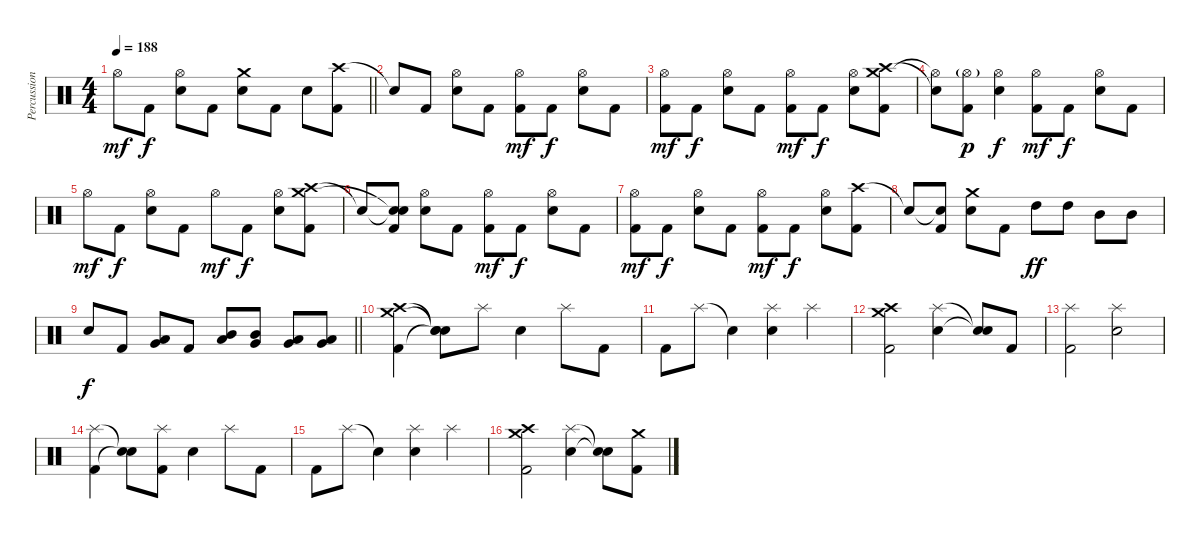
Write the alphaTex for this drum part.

\track ("Percussion" "Percussion") {instrument percussion}
\staff {score}
\articulation defaults
\ts (4 4)
\tempo 188
\clef neutral
\barLineRight lightlight
\ks c "Hi-Hat (open)".8{dy mf} "Kick (hit) 2".8{dy f}
("Hi-Hat (open)" "Electric Snare (hit)").8 "Kick (hit) 2".8 ("Crash medium (hit)" "Electric Snare (hit)").8 "Kick (hit) 2".8 "Electric Snare (hit)".8 ("Crash high (hit)" "Kick (hit) 2").8 |
"Snare (hit)"{t}.8 "Kick (hit) 2".8 ("Hi-Hat (open)" "Electric Snare (hit)").8 "Kick (hit) 2".8 ("Hi-Hat (open)" "Kick (hit) 2").8{dy mf} "Kick (hit) 2".8{dy f} ("Hi-Hat (open)" "Electric Snare (hit)").8 "Kick (hit) 2".8 |
("Hi-Hat (open)" "Kick (hit) 2").8{dy mf} "Kick (hit) 2".8{dy f} ("Hi-Hat (open)" "Electric Snare (hit)").8 "Kick (hit) 2".8 ("Hi-Hat (open)" "Kick (hit) 2").8{dy mf} "Kick (hit) 2".8{dy f} ("Hi-Hat (open)" "Electric Snare (hit)").8 ("Crash high (hit)" "Crash medium (hit)" "Kick (hit) 2").8 |
("Snare (hit)"{t} "Hi-Hat (open)"{t}).8 ("Hi-Hat (open)"{g} "Kick (hit) 2").8{dy p} ("Hi-Hat (open)" "Electric Snare (hit)").4{dy f} ("Hi-Hat (open)" "Kick (hit) 2").8{dy mf} "Kick (hit) 2".8{dy f} ("Hi-Hat (open)" "Electric Snare (hit)").8 "Kick (hit) 2".8 |
"Hi-Hat (open)".8{dy mf} "Kick (hit) 2".8{dy f} ("Hi-Hat (open)" "Electric Snare (hit)").8 "Kick (hit) 2".8 "Hi-Hat (open)".8{dy mf} "Kick (hit) 2".8{dy f} ("Hi-Hat (open)" "Electric Snare (hit)").8 ("Crash high (hit)" "Crash medium (hit)" "Kick (hit) 2").8 |
"Snare (hit)"{t}.8 ("Snare (hit)"{t} "Snare (hit)"{t} "Kick (hit) 2").8 ("Hi-Hat (open)" "Electric Snare (hit)").8 "Kick (hit) 2".8 ("Hi-Hat (open)" "Kick (hit) 2").8{dy mf} "Kick (hit) 2".8{dy f} ("Hi-Hat (open)" "Electric Snare (hit)").8 "Kick (hit) 2".8 |
("Hi-Hat (open)" "Kick (hit) 2").8{dy mf} "Kick (hit) 2".8{dy f} ("Hi-Hat (open)" "Electric Snare (hit)").8 "Kick (hit) 2".8 ("Hi-Hat (open)" "Kick (hit) 2").8{dy mf} "Kick (hit) 2".8{dy f} ("Hi-Hat (open)" "Electric Snare (hit)").8 ("Crash high (hit)" "Kick (hit) 2").8 |
"Snare (hit)"{t}.8 ("Snare (hit)"{t} "Kick (hit) 2").8 ("Crash medium (hit)" "Electric Snare (hit)").8 "Kick (hit) 2".8 "High Tom (hit)".8{dy ff} "High Tom (hit)".8 "Mid Tom (hit)".8 "Mid Tom (hit)".8 |
\barLineRight lightlight "Electric Snare (hit)".8{dy f} "Kick (hit) 2".8
("Low Tom (hit)" "Very Low Tom (hit)").8 "Kick (hit) 2".8 ("Mid Tom (hit)" "Low Tom (hit)").8 ("Mid Tom (hit)" "Very Low Tom (hit)").8 ("Low Tom (hit)" "Very Low Tom (hit)").8 ("Very Low Tom (hit)" "Low Floor Tom (hit)").8 |
("Crash high (hit)" "Crash medium (hit)" "Kick (hit) 2").4 ("Snare (hit)"{t} "Snare (hit)"{t} "Snare (hit)"{t}).8 "Splash (hit)".8 "Electric Snare (hit)".4 "Splash (hit)".8 "Kick (hit) 2".8 |
"Kick (hit) 2".8 "Splash (hit)".8 "Snare (hit)"{t}.4 ("Splash (hit)" "Electric Snare (hit)").4 "Splash (hit)".4 |
("Crash high (hit)" "Crash medium (hit)" "Kick (hit) 2").2 ("Splash (hit)" "Electric Snare (hit)").4 ("Snare (hit)"{t} "Snare (hit)"{t}).8 "Kick (hit) 2".8 |
("Splash (hit)" "Kick (hit) 2").2 ("Splash (hit)" "Electric Snare (hit)").2 |
("Splash (hit)" "Kick (hit) 2").4 ("Snare (hit)"{t} "Snare (hit)"{t}).8 ("Splash (hit)" "Kick (hit) 2").8 "Electric Snare (hit)".4 "Splash (hit)".8 "Kick (hit) 2".8 |
"Kick (hit) 2".8 "Splash (hit)".8 "Snare (hit)"{t}.4 ("Splash (hit)" "Electric Snare (hit)").4 "Splash (hit)".4 |
("Crash high (hit)" "Crash medium (hit)" "Kick (hit) 2").2 ("Splash (hit)" "Electric Snare (hit)").4 ("Snare (hit)"{t} "Snare (hit)"{t}).8 ("Crash medium (hit)" "Kick (hit) 2").8
